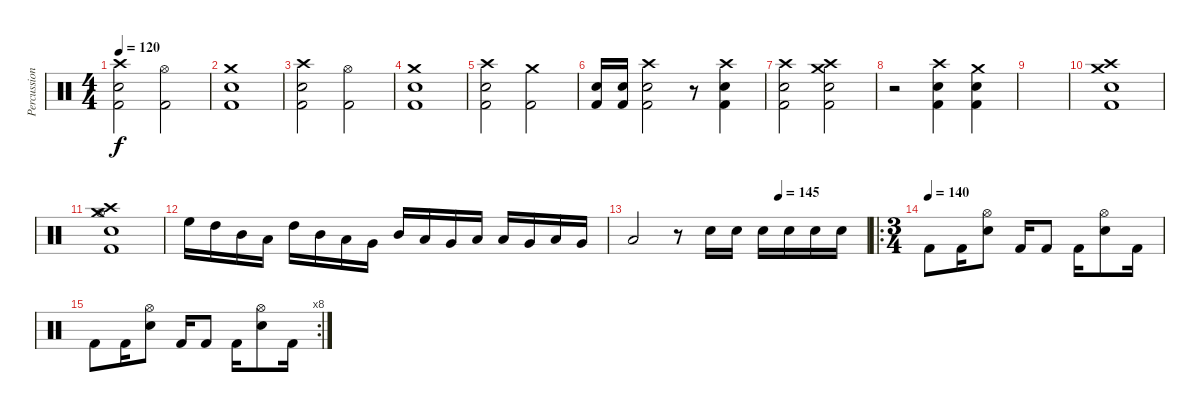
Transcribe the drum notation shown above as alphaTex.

\track ("Percussion" "Percussion") {instrument percussion}
\staff {score}
\articulation defaults
\ts (4 4)
\tempo 120
\clef neutral
\ks c
("Crash high (hit)" "Snare (hit) 2" "Kick (hit) 2").2{dy f} ("Hi-Hat (open)" "Kick (hit) 2").2 |
("Crash medium (hit)" "Snare (hit) 2" "Kick (hit) 2").1 |
("Crash high (hit)" "Snare (hit) 2" "Kick (hit) 2").2 ("Hi-Hat (open)" "Kick (hit) 2").2 |
("Crash medium (hit)" "Snare (hit) 2" "Kick (hit) 2").1 |
("Crash high (hit)" "Snare (hit) 2" "Kick (hit) 2").2 ("Crash medium (hit)" "Kick (hit) 2").2 |
("Snare (hit) 2" "Kick (hit) 2").16 ("Kick (hit) 2" "Snare (hit) 2").16 ("Crash high (hit)" "Snare (hit) 2" "Kick (hit) 2").2 r.8 ("Crash high (hit)" "Kick (hit) 2" "Snare (hit) 2").4 |
("Crash high (hit)" "Snare (hit) 2" "Kick (hit) 2").2 ("Crash medium (hit)" "Crash high (hit)" "Kick (hit) 2" "Snare (hit) 2").2 |
r.2 ("Crash high (hit)" "Kick (hit) 2" "Snare (hit) 2").4 ("Crash medium (hit)" "Kick (hit) 2" "Snare (hit) 2").4 |
|
("Crash high (hit)" "Crash medium (hit)" "Kick (hit) 2" "Snare (hit) 2").1 |
("Crash high (hit)" "Crash medium (hit)" "Hi-Hat (open)" "Snare (hit) 2" "Kick (hit) 2").1 |
"High Floor Tom (hit)".16 "High Tom (hit)".16 "Mid Tom (hit)".16 "Low Tom (hit)".16 "High Tom (hit)".16 "Mid Tom (hit)".16 "Low Tom (hit)".16 "Very Low Tom (hit)".16 "Mid Tom (hit)".16 "Low Tom (hit)".16 "Very Low Tom (hit)".16 "Low Floor Tom (hit)".16 "Low Tom (hit)".16 "Very Low Tom (hit)".16 "Low Floor Tom (hit)".16 "Very Low Tom (hit)".16 |
\tempo (145 0.625)
"Low Floor Tom (hit)".2 r.8 "Snare (hit) 2".16 "Snare (hit) 2".16 "Snare (hit) 2".16 "Snare (hit) 2".16 "Snare (hit) 2".16 "Snare (hit) 2".16 |
\ro
\ts (3 4)
\tempo (140)
"Kick (hit) 2".8 "Kick (hit) 2".16 ("Hi-Hat (open)" "Snare (hit) 2").8 "Kick (hit) 2".16 "Kick (hit) 2".8 "Kick (hit) 2".16 ("Hi-Hat (open)" "Snare (hit) 2").8 "Kick (hit) 2".16 |
\rc 8 "Kick (hit) 2".8 "Kick (hit) 2".16
("Hi-Hat (open)" "Snare (hit) 2").8 "Kick (hit) 2".16 "Kick (hit) 2".8 "Kick (hit) 2".16 ("Hi-Hat (open)" "Snare (hit) 2").8 "Kick (hit) 2".16
